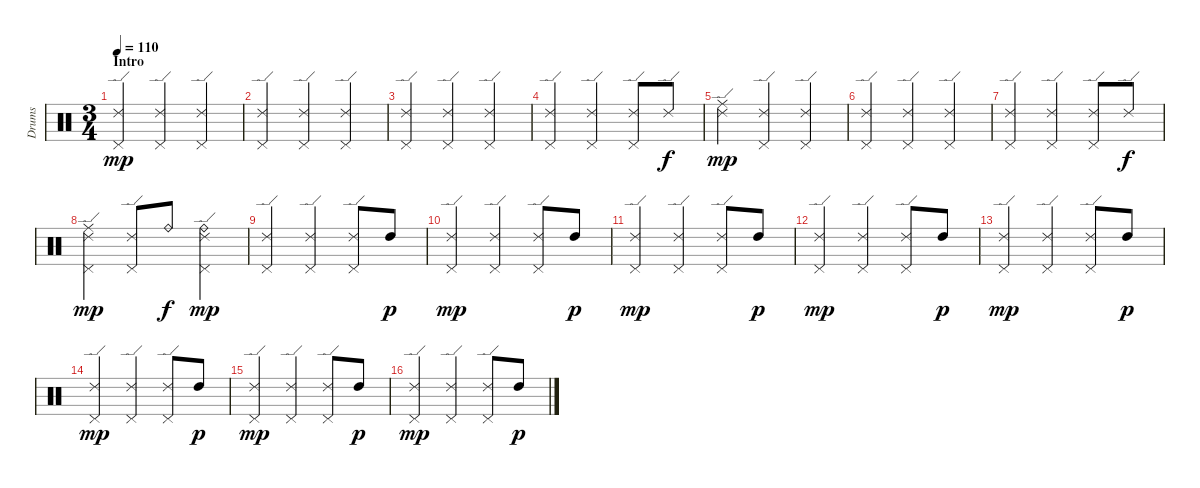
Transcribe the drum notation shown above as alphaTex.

\track ("Drums" "Drums") {instrument percussion}
\staff {score}
\articulation defaults
\ts (3 4)
\section ("" "Intro")
\tempo 110
\clef neutral
\ks c
("Ride (edge) 2" "Pedal Hi-Hat (hit)").4{dy mp} ("Ride (edge) 2" "Pedal Hi-Hat (hit)").4 ("Ride (edge) 2" "Pedal Hi-Hat (hit)").4 |
("Ride (edge) 2" "Pedal Hi-Hat (hit)").4 ("Ride (edge) 2" "Pedal Hi-Hat (hit)").4 ("Ride (edge) 2" "Pedal Hi-Hat (hit)").4 |
("Ride (edge) 2" "Pedal Hi-Hat (hit)").4 ("Ride (edge) 2" "Pedal Hi-Hat (hit)").4 ("Ride (edge) 2" "Pedal Hi-Hat (hit)").4 |
("Ride (edge) 2" "Pedal Hi-Hat (hit)").4 ("Ride (edge) 2" "Pedal Hi-Hat (hit)").4 ("Ride (edge) 2" "Pedal Hi-Hat (hit)").8 "Ride (edge) 2".8{dy f} |
("Ride (edge) 2" "Ride (middle)").4{dy mp} ("Ride (edge) 2" "Pedal Hi-Hat (hit)").4 ("Ride (edge) 2" "Pedal Hi-Hat (hit)").4 |
("Ride (edge) 2" "Pedal Hi-Hat (hit)").4 ("Ride (edge) 2" "Pedal Hi-Hat (hit)").4 ("Ride (edge) 2" "Pedal Hi-Hat (hit)").4 |
("Ride (edge) 2" "Pedal Hi-Hat (hit)").4 ("Ride (edge) 2" "Pedal Hi-Hat (hit)").4 ("Ride (edge) 2" "Pedal Hi-Hat (hit)").8 "Ride (edge) 2".8{dy f} |
("Ride (edge) 2" "Ride (middle)" "Pedal Hi-Hat (hit)").4{dy mp} ("Ride (edge) 2" "Pedal Hi-Hat (hit)").8 "Ride (bell)".8{dy f} ("Ride (edge) 2" "Ride (bell)" "Pedal Hi-Hat (hit)").4{dy mp} |
("Ride (edge) 2" "Pedal Hi-Hat (hit)").4 ("Ride (edge) 2" "Pedal Hi-Hat (hit)").4 ("Ride (edge) 2" "Pedal Hi-Hat (hit)").8 "High Tom (hit)".8{dy p} |
("Ride (edge) 2" "Pedal Hi-Hat (hit)").4{dy mp} ("Ride (edge) 2" "Pedal Hi-Hat (hit)").4 ("Ride (edge) 2" "Pedal Hi-Hat (hit)").8 "High Tom (hit)".8{dy p} |
("Ride (edge) 2" "Pedal Hi-Hat (hit)").4{dy mp} ("Ride (edge) 2" "Pedal Hi-Hat (hit)").4 ("Ride (edge) 2" "Pedal Hi-Hat (hit)").8 "High Tom (hit)".8{dy p} |
("Ride (edge) 2" "Pedal Hi-Hat (hit)").4{dy mp} ("Ride (edge) 2" "Pedal Hi-Hat (hit)").4 ("Ride (edge) 2" "Pedal Hi-Hat (hit)").8 "High Tom (hit)".8{dy p} |
("Ride (edge) 2" "Pedal Hi-Hat (hit)").4{dy mp} ("Ride (edge) 2" "Pedal Hi-Hat (hit)").4 ("Ride (edge) 2" "Pedal Hi-Hat (hit)").8 "High Tom (hit)".8{dy p} |
("Ride (edge) 2" "Pedal Hi-Hat (hit)").4{dy mp} ("Ride (edge) 2" "Pedal Hi-Hat (hit)").4 ("Ride (edge) 2" "Pedal Hi-Hat (hit)").8 "High Tom (hit)".8{dy p} |
("Ride (edge) 2" "Pedal Hi-Hat (hit)").4{dy mp} ("Ride (edge) 2" "Pedal Hi-Hat (hit)").4 ("Ride (edge) 2" "Pedal Hi-Hat (hit)").8 "High Tom (hit)".8{dy p} |
("Ride (edge) 2" "Pedal Hi-Hat (hit)").4{dy mp} ("Ride (edge) 2" "Pedal Hi-Hat (hit)").4 ("Ride (edge) 2" "Pedal Hi-Hat (hit)").8 "High Tom (hit)".8{dy p}
